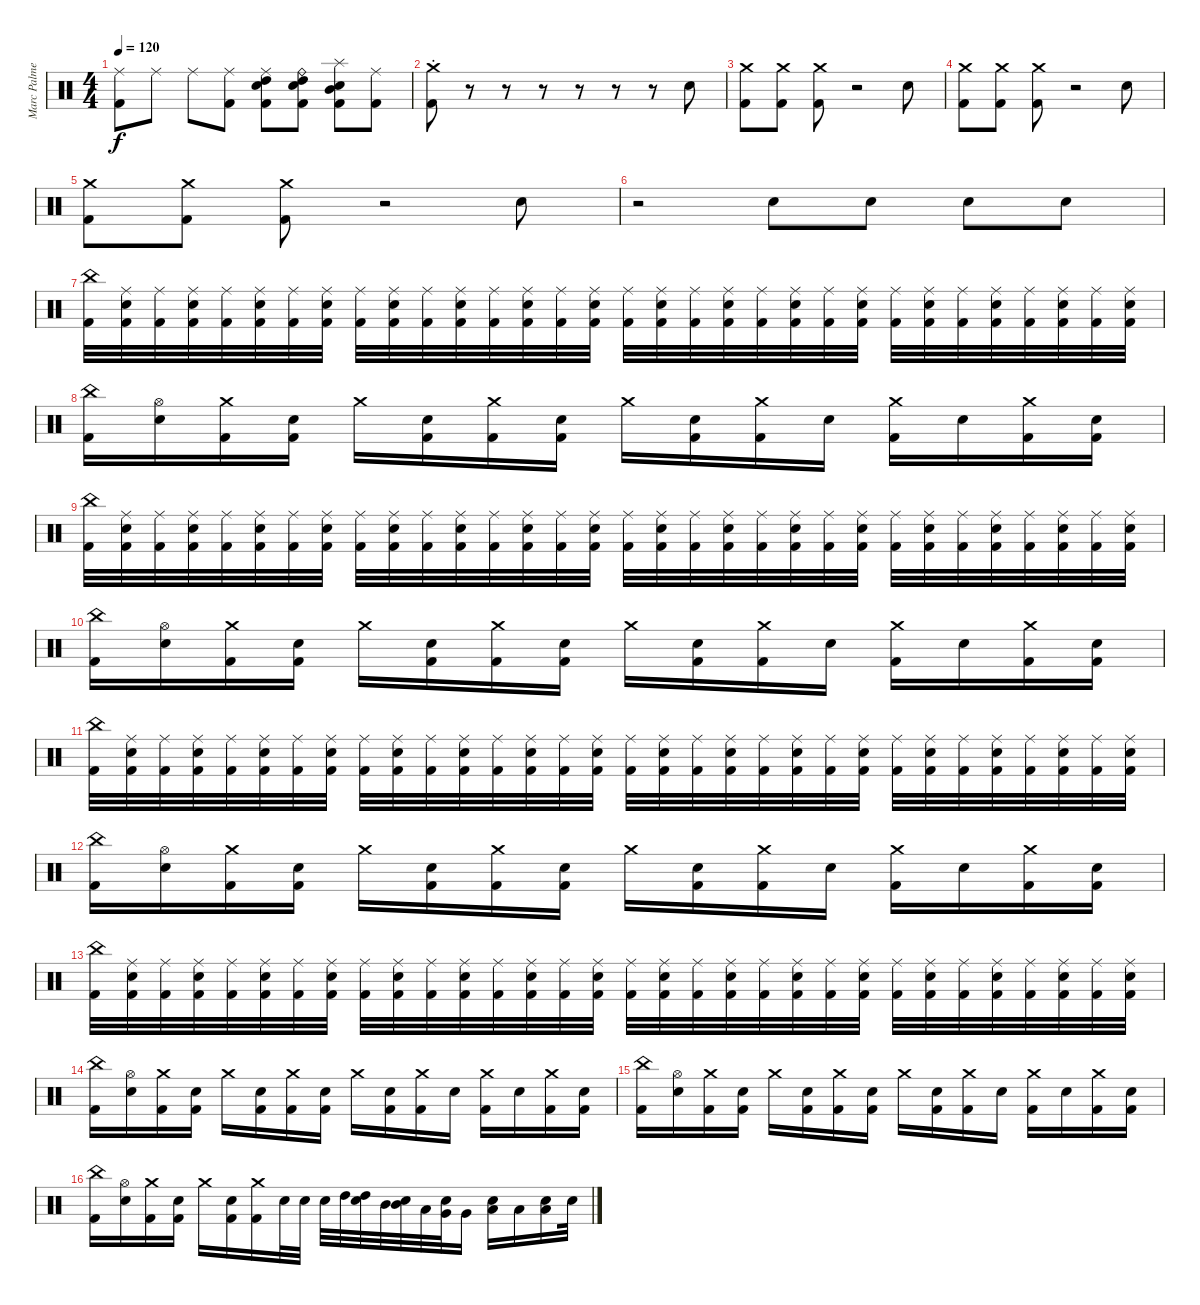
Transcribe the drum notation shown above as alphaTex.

\track ("Marc Palmen" "Marc Palme") {instrument percussion}
\staff {score}
\articulation defaults
\ts (4 4)
\tempo 120
\clef neutral
\ks c
("Ride (middle)" "Kick (hit) 2").8{dy f} "Ride (middle)".8 "Ride (middle)".8 ("Ride (middle)" "Kick (hit) 2").8 ("High Tom (hit)" "Ride (middle)" "Electric Snare (hit)" "Kick (hit) 2").8 ("High Tom (hit)" "Ride (bell)" "Electric Snare (hit)" "Kick (hit) 2").8 ("Mid Tom (hit)" "Splash (hit)" "Electric Snare (hit)" "Kick (hit) 2").8 ("Ride (middle)" "Kick (hit) 2").8 |
("Crash medium (hit)"{st} "Kick (hit) 2"{st}).8 r.8 r.8 r.8 r.8 r.8 r.8 "Electric Snare (hit)".8 |
("Crash medium (hit)" "Kick (hit) 2").8 ("Crash medium (hit)" "Kick (hit) 2").8 ("Crash medium (hit)" "Kick (hit) 2").8 r.2 "Electric Snare (hit)".8 |
("Crash medium (hit)" "Kick (hit) 2").8 ("Crash medium (hit)" "Kick (hit) 2").8 ("Crash medium (hit)" "Kick (hit) 2").8 r.2 "Electric Snare (hit)".8 |
("Crash medium (hit)" "Kick (hit) 2").8 ("Crash medium (hit)" "Kick (hit) 2").8 ("Crash medium (hit)" "Kick (hit) 2").8 r.2 "Electric Snare (hit)".8 |
r.2 "Electric Snare (hit)".8 "Electric Snare (hit)".8 "Electric Snare (hit)".8 "Electric Snare (hit)".8 |
("China (hit)" "Kick (hit) 2").32 ("Ride (middle)" "Electric Snare (hit)" "Kick (hit) 2").32 ("Ride (middle)" "Kick (hit) 2").32 ("Ride (middle)" "Electric Snare (hit)" "Kick (hit) 2").32 ("Ride (middle)" "Kick (hit) 2").32 ("Ride (middle)" "Electric Snare (hit)" "Kick (hit) 2").32 ("Ride (middle)" "Kick (hit) 2").32 ("Ride (middle)" "Electric Snare (hit)" "Kick (hit) 2").32 ("Ride (middle)" "Kick (hit) 2").32 ("Ride (middle)" "Electric Snare (hit)" "Kick (hit) 2").32 ("Ride (middle)" "Kick (hit) 2").32 ("Ride (middle)" "Electric Snare (hit)" "Kick (hit) 2").32 ("Ride (middle)" "Kick (hit) 2").32 ("Ride (middle)" "Electric Snare (hit)" "Kick (hit) 2").32 ("Ride (middle)" "Kick (hit) 2").32 ("Ride (middle)" "Electric Snare (hit)" "Kick (hit) 2").32 ("Ride (middle)" "Kick (hit) 2").32 ("Ride (middle)" "Electric Snare (hit)" "Kick (hit) 2").32 ("Ride (middle)" "Kick (hit) 2").32 ("Ride (middle)" "Electric Snare (hit)" "Kick (hit) 2").32 ("Ride (middle)" "Kick (hit) 2").32 ("Ride (middle)" "Electric Snare (hit)" "Kick (hit) 2").32 ("Ride (middle)" "Kick (hit) 2").32 ("Ride (middle)" "Electric Snare (hit)" "Kick (hit) 2").32 ("Ride (middle)" "Kick (hit) 2").32 ("Ride (middle)" "Electric Snare (hit)" "Kick (hit) 2").32 ("Ride (middle)" "Kick (hit) 2").32 ("Ride (middle)" "Electric Snare (hit)" "Kick (hit) 2").32 ("Ride (middle)" "Kick (hit) 2").32 ("Ride (middle)" "Electric Snare (hit)" "Kick (hit) 2").32 ("Ride (middle)" "Kick (hit) 2").32 ("Ride (middle)" "Electric Snare (hit)" "Kick (hit) 2").32 |
("China (hit)" "Kick (hit) 2").16 ("Hi-Hat (open)" "Electric Snare (hit)").16 ("Crash medium (hit)" "Kick (hit) 2").16 ("Electric Snare (hit)" "Kick (hit) 2").16 "Crash medium (hit)".16 ("Electric Snare (hit)" "Kick (hit) 2").16 ("Crash medium (hit)" "Kick (hit) 2").16 ("Electric Snare (hit)" "Kick (hit) 2").16 "Crash medium (hit)".16 ("Electric Snare (hit)" "Kick (hit) 2").16 ("Crash medium (hit)" "Kick (hit) 2").16 "Electric Snare (hit)".16 ("Crash medium (hit)" "Kick (hit) 2").16 "Electric Snare (hit)".16 ("Crash medium (hit)" "Kick (hit) 2").16 ("Electric Snare (hit)" "Kick (hit) 2").16 |
("China (hit)" "Kick (hit) 2").32 ("Ride (middle)" "Electric Snare (hit)" "Kick (hit) 2").32 ("Ride (middle)" "Kick (hit) 2").32 ("Ride (middle)" "Electric Snare (hit)" "Kick (hit) 2").32 ("Ride (middle)" "Kick (hit) 2").32 ("Ride (middle)" "Electric Snare (hit)" "Kick (hit) 2").32 ("Ride (middle)" "Kick (hit) 2").32 ("Ride (middle)" "Electric Snare (hit)" "Kick (hit) 2").32 ("Ride (middle)" "Kick (hit) 2").32 ("Ride (middle)" "Electric Snare (hit)" "Kick (hit) 2").32 ("Ride (middle)" "Kick (hit) 2").32 ("Ride (middle)" "Electric Snare (hit)" "Kick (hit) 2").32 ("Ride (middle)" "Kick (hit) 2").32 ("Ride (middle)" "Electric Snare (hit)" "Kick (hit) 2").32 ("Ride (middle)" "Kick (hit) 2").32 ("Ride (middle)" "Electric Snare (hit)" "Kick (hit) 2").32 ("Ride (middle)" "Kick (hit) 2").32 ("Ride (middle)" "Electric Snare (hit)" "Kick (hit) 2").32 ("Ride (middle)" "Kick (hit) 2").32 ("Ride (middle)" "Electric Snare (hit)" "Kick (hit) 2").32 ("Ride (middle)" "Kick (hit) 2").32 ("Ride (middle)" "Electric Snare (hit)" "Kick (hit) 2").32 ("Ride (middle)" "Kick (hit) 2").32 ("Ride (middle)" "Electric Snare (hit)" "Kick (hit) 2").32 ("Ride (middle)" "Kick (hit) 2").32 ("Ride (middle)" "Electric Snare (hit)" "Kick (hit) 2").32 ("Ride (middle)" "Kick (hit) 2").32 ("Ride (middle)" "Electric Snare (hit)" "Kick (hit) 2").32 ("Ride (middle)" "Kick (hit) 2").32 ("Ride (middle)" "Electric Snare (hit)" "Kick (hit) 2").32 ("Ride (middle)" "Kick (hit) 2").32 ("Ride (middle)" "Electric Snare (hit)" "Kick (hit) 2").32 |
("China (hit)" "Kick (hit) 2").16 ("Hi-Hat (open)" "Electric Snare (hit)").16 ("Crash medium (hit)" "Kick (hit) 2").16 ("Electric Snare (hit)" "Kick (hit) 2").16 "Crash medium (hit)".16 ("Electric Snare (hit)" "Kick (hit) 2").16 ("Crash medium (hit)" "Kick (hit) 2").16 ("Electric Snare (hit)" "Kick (hit) 2").16 "Crash medium (hit)".16 ("Electric Snare (hit)" "Kick (hit) 2").16 ("Crash medium (hit)" "Kick (hit) 2").16 "Electric Snare (hit)".16 ("Crash medium (hit)" "Kick (hit) 2").16 "Electric Snare (hit)".16 ("Crash medium (hit)" "Kick (hit) 2").16 ("Electric Snare (hit)" "Kick (hit) 2").16 |
("China (hit)" "Kick (hit) 2").32 ("Ride (middle)" "Electric Snare (hit)" "Kick (hit) 2").32 ("Ride (middle)" "Kick (hit) 2").32 ("Ride (middle)" "Electric Snare (hit)" "Kick (hit) 2").32 ("Ride (middle)" "Kick (hit) 2").32 ("Ride (middle)" "Electric Snare (hit)" "Kick (hit) 2").32 ("Ride (middle)" "Kick (hit) 2").32 ("Ride (middle)" "Electric Snare (hit)" "Kick (hit) 2").32 ("Ride (middle)" "Kick (hit) 2").32 ("Ride (middle)" "Electric Snare (hit)" "Kick (hit) 2").32 ("Ride (middle)" "Kick (hit) 2").32 ("Ride (middle)" "Electric Snare (hit)" "Kick (hit) 2").32 ("Ride (middle)" "Kick (hit) 2").32 ("Ride (middle)" "Electric Snare (hit)" "Kick (hit) 2").32 ("Ride (middle)" "Kick (hit) 2").32 ("Ride (middle)" "Electric Snare (hit)" "Kick (hit) 2").32 ("Ride (middle)" "Kick (hit) 2").32 ("Ride (middle)" "Electric Snare (hit)" "Kick (hit) 2").32 ("Ride (middle)" "Kick (hit) 2").32 ("Ride (middle)" "Electric Snare (hit)" "Kick (hit) 2").32 ("Ride (middle)" "Kick (hit) 2").32 ("Ride (middle)" "Electric Snare (hit)" "Kick (hit) 2").32 ("Ride (middle)" "Kick (hit) 2").32 ("Ride (middle)" "Electric Snare (hit)" "Kick (hit) 2").32 ("Ride (middle)" "Kick (hit) 2").32 ("Ride (middle)" "Electric Snare (hit)" "Kick (hit) 2").32 ("Ride (middle)" "Kick (hit) 2").32 ("Ride (middle)" "Electric Snare (hit)" "Kick (hit) 2").32 ("Ride (middle)" "Kick (hit) 2").32 ("Ride (middle)" "Electric Snare (hit)" "Kick (hit) 2").32 ("Ride (middle)" "Kick (hit) 2").32 ("Ride (middle)" "Electric Snare (hit)" "Kick (hit) 2").32 |
("China (hit)" "Kick (hit) 2").16 ("Hi-Hat (open)" "Electric Snare (hit)").16 ("Crash medium (hit)" "Kick (hit) 2").16 ("Electric Snare (hit)" "Kick (hit) 2").16 "Crash medium (hit)".16 ("Electric Snare (hit)" "Kick (hit) 2").16 ("Crash medium (hit)" "Kick (hit) 2").16 ("Electric Snare (hit)" "Kick (hit) 2").16 "Crash medium (hit)".16 ("Electric Snare (hit)" "Kick (hit) 2").16 ("Crash medium (hit)" "Kick (hit) 2").16 "Electric Snare (hit)".16 ("Crash medium (hit)" "Kick (hit) 2").16 "Electric Snare (hit)".16 ("Crash medium (hit)" "Kick (hit) 2").16 ("Electric Snare (hit)" "Kick (hit) 2").16 |
("China (hit)" "Kick (hit) 2").32 ("Ride (middle)" "Electric Snare (hit)" "Kick (hit) 2").32 ("Ride (middle)" "Kick (hit) 2").32 ("Ride (middle)" "Electric Snare (hit)" "Kick (hit) 2").32 ("Ride (middle)" "Kick (hit) 2").32 ("Ride (middle)" "Electric Snare (hit)" "Kick (hit) 2").32 ("Ride (middle)" "Kick (hit) 2").32 ("Ride (middle)" "Electric Snare (hit)" "Kick (hit) 2").32 ("Ride (middle)" "Kick (hit) 2").32 ("Ride (middle)" "Electric Snare (hit)" "Kick (hit) 2").32 ("Ride (middle)" "Kick (hit) 2").32 ("Ride (middle)" "Electric Snare (hit)" "Kick (hit) 2").32 ("Ride (middle)" "Kick (hit) 2").32 ("Ride (middle)" "Electric Snare (hit)" "Kick (hit) 2").32 ("Ride (middle)" "Kick (hit) 2").32 ("Ride (middle)" "Electric Snare (hit)" "Kick (hit) 2").32 ("Ride (middle)" "Kick (hit) 2").32 ("Ride (middle)" "Electric Snare (hit)" "Kick (hit) 2").32 ("Ride (middle)" "Kick (hit) 2").32 ("Ride (middle)" "Electric Snare (hit)" "Kick (hit) 2").32 ("Ride (middle)" "Kick (hit) 2").32 ("Ride (middle)" "Electric Snare (hit)" "Kick (hit) 2").32 ("Ride (middle)" "Kick (hit) 2").32 ("Ride (middle)" "Electric Snare (hit)" "Kick (hit) 2").32 ("Ride (middle)" "Kick (hit) 2").32 ("Ride (middle)" "Electric Snare (hit)" "Kick (hit) 2").32 ("Ride (middle)" "Kick (hit) 2").32 ("Ride (middle)" "Electric Snare (hit)" "Kick (hit) 2").32 ("Ride (middle)" "Kick (hit) 2").32 ("Ride (middle)" "Electric Snare (hit)" "Kick (hit) 2").32 ("Ride (middle)" "Kick (hit) 2").32 ("Ride (middle)" "Electric Snare (hit)" "Kick (hit) 2").32 |
("China (hit)" "Kick (hit) 2").16 ("Hi-Hat (open)" "Electric Snare (hit)").16 ("Crash medium (hit)" "Kick (hit) 2").16 ("Electric Snare (hit)" "Kick (hit) 2").16 "Crash medium (hit)".16 ("Electric Snare (hit)" "Kick (hit) 2").16 ("Crash medium (hit)" "Kick (hit) 2").16 ("Electric Snare (hit)" "Kick (hit) 2").16 "Crash medium (hit)".16 ("Electric Snare (hit)" "Kick (hit) 2").16 ("Crash medium (hit)" "Kick (hit) 2").16 "Electric Snare (hit)".16 ("Crash medium (hit)" "Kick (hit) 2").16 "Electric Snare (hit)".16 ("Crash medium (hit)" "Kick (hit) 2").16 ("Electric Snare (hit)" "Kick (hit) 2").16 |
("China (hit)" "Kick (hit) 2").16 ("Hi-Hat (open)" "Electric Snare (hit)").16 ("Crash medium (hit)" "Kick (hit) 2").16 ("Electric Snare (hit)" "Kick (hit) 2").16 "Crash medium (hit)".16 ("Electric Snare (hit)" "Kick (hit) 2").16 ("Crash medium (hit)" "Kick (hit) 2").16 ("Electric Snare (hit)" "Kick (hit) 2").16 "Crash medium (hit)".16 ("Electric Snare (hit)" "Kick (hit) 2").16 ("Crash medium (hit)" "Kick (hit) 2").16 "Electric Snare (hit)".16 ("Crash medium (hit)" "Kick (hit) 2").16 "Electric Snare (hit)".16 ("Crash medium (hit)" "Kick (hit) 2").16 ("Electric Snare (hit)" "Kick (hit) 2").16 |
("China (hit)" "Kick (hit) 2").16 ("Hi-Hat (open)" "Electric Snare (hit)").16 ("Crash medium (hit)" "Kick (hit) 2").16 ("Electric Snare (hit)" "Kick (hit) 2").16 "Crash medium (hit)".16 ("Electric Snare (hit)" "Kick (hit) 2").16 ("Crash medium (hit)" "Kick (hit) 2").16 "Electric Snare (hit)".32 "Electric Snare (hit)".32 "Electric Snare (hit)".32 "High Tom (hit)".32 ("High Tom (hit)" "Electric Snare (hit)").32 "Mid Tom (hit)".32 ("Mid Tom (hit)" "Electric Snare (hit)").32 "Low Tom (hit)".32 ("Very Low Tom (hit)" "Electric Snare (hit)").32 "Very Low Tom (hit)".16 ("Low Floor Tom (hit)" "Electric Snare (hit)").16 "Low Floor Tom (hit)".16 ("Low Floor Tom (hit)" "Electric Snare (hit)").16 "Electric Snare (hit)".32
